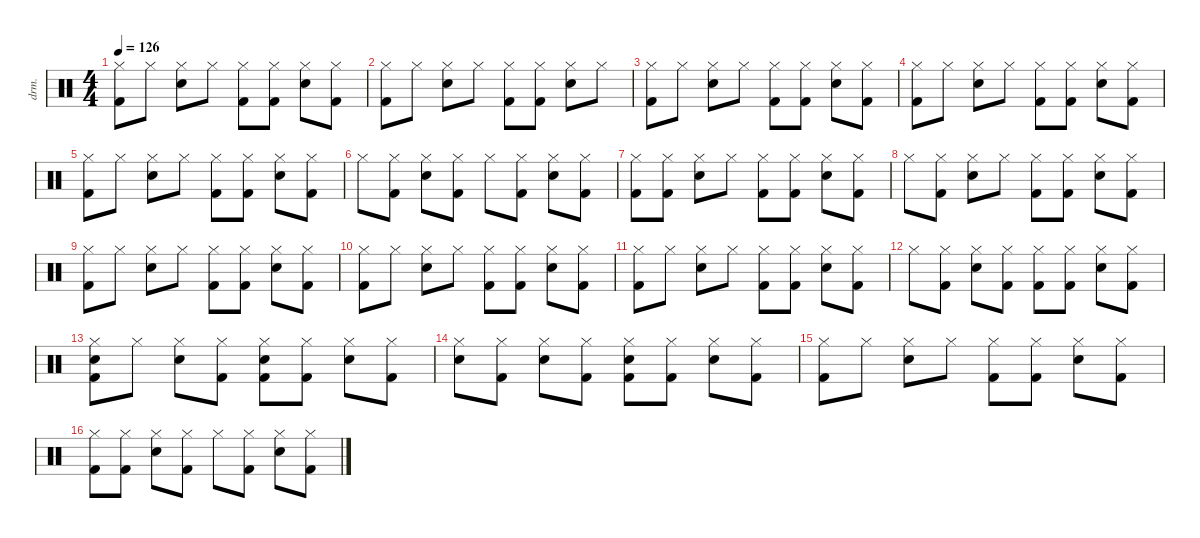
\defaultSystemsLayout 4
\hideDynamics
\bracketExtendMode nobrackets
\otherSystemsTrackNameOrientation horizontal
\track ("Drums" "drm.") {instrument percussion}
\staff {score}
\articulation defaults
\ts (4 4)
\tempo 126
\clef neutral
\ks c
("Kick (hit) 2" "Hi-Hat (closed)").8{dy f beam Down} "Hi-Hat (closed)".8{beam Down} ("Snare (hit) 2" "Hi-Hat (closed)").8{beam Down} "Hi-Hat (closed)".8{beam Down} ("Hi-Hat (closed)" "Kick (hit) 2").8{beam Down} ("Hi-Hat (closed)" "Kick (hit) 2").8{beam Down} ("Snare (hit) 2" "Hi-Hat (closed)").8{beam Down} ("Kick (hit) 2" "Hi-Hat (closed)").8{beam Down} |
("Kick (hit) 2" "Hi-Hat (closed)").8{beam Down} "Hi-Hat (closed)".8{beam Down} ("Snare (hit) 2" "Hi-Hat (closed)").8{beam Down} "Hi-Hat (closed)".8{beam Down} ("Hi-Hat (closed)" "Kick (hit) 2").8{beam Down} ("Hi-Hat (closed)" "Kick (hit) 2").8{beam Down} ("Snare (hit) 2" "Hi-Hat (closed)").8{beam Down} "Hi-Hat (closed)".8{beam Down} |
("Kick (hit) 2" "Hi-Hat (closed)").8{beam Down} "Hi-Hat (closed)".8{beam Down} ("Snare (hit) 2" "Hi-Hat (closed)").8{beam Down} "Hi-Hat (closed)".8{beam Down} ("Hi-Hat (closed)" "Kick (hit) 2").8{beam Down} ("Hi-Hat (closed)" "Kick (hit) 2").8{beam Down} ("Snare (hit) 2" "Hi-Hat (closed)").8{beam Down} ("Kick (hit) 2" "Hi-Hat (closed)").8{beam Down} |
("Kick (hit) 2" "Hi-Hat (closed)").8{beam Down} "Hi-Hat (closed)".8{beam Down} ("Snare (hit) 2" "Hi-Hat (closed)").8{beam Down} "Hi-Hat (closed)".8{beam Down} ("Hi-Hat (closed)" "Kick (hit) 2").8{beam Down} ("Hi-Hat (closed)" "Kick (hit) 2").8{beam Down} ("Snare (hit) 2" "Hi-Hat (closed)").8{beam Down} ("Kick (hit) 2" "Hi-Hat (closed)").8{beam Down} |
("Kick (hit) 2" "Hi-Hat (closed)").8{beam Down} "Hi-Hat (closed)".8{beam Down} ("Snare (hit) 2" "Hi-Hat (closed)").8{beam Down} "Hi-Hat (closed)".8{beam Down} ("Hi-Hat (closed)" "Kick (hit) 2").8{beam Down} ("Hi-Hat (closed)" "Kick (hit) 2").8{beam Down} ("Snare (hit) 2" "Hi-Hat (closed)").8{beam Down} ("Kick (hit) 2" "Hi-Hat (closed)").8{beam Down} |
"Hi-Hat (closed)".8{beam Down} ("Hi-Hat (closed)" "Kick (hit) 2").8{beam Down} ("Snare (hit) 2" "Hi-Hat (closed)").8{beam Down} ("Kick (hit) 2" "Hi-Hat (closed)").8{beam Down} "Hi-Hat (closed)".8{beam Down} ("Hi-Hat (closed)" "Kick (hit) 2").8{beam Down} ("Snare (hit) 2" "Hi-Hat (closed)").8{beam Down} ("Kick (hit) 2" "Hi-Hat (closed)").8{beam Down} |
("Kick (hit) 2" "Hi-Hat (closed)").8{beam Down} ("Kick (hit) 2" "Hi-Hat (closed)").8{beam Down} ("Snare (hit) 2" "Hi-Hat (closed)").8{beam Down} "Hi-Hat (closed)".8{beam Down} ("Hi-Hat (closed)" "Kick (hit) 2").8{beam Down} ("Hi-Hat (closed)" "Kick (hit) 2").8{beam Down} ("Snare (hit) 2" "Hi-Hat (closed)").8{beam Down} ("Kick (hit) 2" "Hi-Hat (closed)").8{beam Down} |
"Hi-Hat (closed)".8{beam Down} ("Hi-Hat (closed)" "Kick (hit) 2").8{beam Down} ("Snare (hit) 2" "Hi-Hat (closed)").8{beam Down} "Hi-Hat (closed)".8{beam Down} ("Hi-Hat (closed)" "Kick (hit) 2").8{beam Down} ("Hi-Hat (closed)" "Kick (hit) 2").8{beam Down} ("Snare (hit) 2" "Hi-Hat (closed)").8{beam Down} ("Kick (hit) 2" "Hi-Hat (closed)").8{beam Down} |
("Kick (hit) 2" "Hi-Hat (closed)").8{beam Down} "Hi-Hat (closed)".8{beam Down} ("Snare (hit) 2" "Hi-Hat (closed)").8{beam Down} "Hi-Hat (closed)".8{beam Down} ("Hi-Hat (closed)" "Kick (hit) 2").8{beam Down} ("Hi-Hat (closed)" "Kick (hit) 2").8{beam Down} ("Snare (hit) 2" "Hi-Hat (closed)").8{beam Down} ("Kick (hit) 2" "Hi-Hat (closed)").8{beam Down} |
("Kick (hit) 2" "Hi-Hat (closed)").8{beam Down} "Hi-Hat (closed)".8{beam Down} ("Snare (hit) 2" "Hi-Hat (closed)").8{beam Down} "Hi-Hat (closed)".8{beam Down} ("Hi-Hat (closed)" "Kick (hit) 2").8{beam Down} ("Hi-Hat (closed)" "Kick (hit) 2").8{beam Down} ("Snare (hit) 2" "Hi-Hat (closed)").8{beam Down} ("Kick (hit) 2" "Hi-Hat (closed)").8{beam Down} |
("Kick (hit) 2" "Hi-Hat (closed)").8{beam Down} "Hi-Hat (closed)".8{beam Down} ("Snare (hit) 2" "Hi-Hat (closed)").8{beam Down} "Hi-Hat (closed)".8{beam Down} ("Hi-Hat (closed)" "Kick (hit) 2").8{beam Down} ("Hi-Hat (closed)" "Kick (hit) 2").8{beam Down} ("Snare (hit) 2" "Hi-Hat (closed)").8{beam Down} ("Hi-Hat (closed)" "Kick (hit) 2").8{beam Down} |
"Hi-Hat (closed)".8{beam Down} ("Kick (hit) 2" "Hi-Hat (closed)").8{beam Down} ("Snare (hit) 2" "Hi-Hat (closed)").8{beam Down} ("Kick (hit) 2" "Hi-Hat (closed)").8{beam Down} ("Hi-Hat (closed)" "Kick (hit) 2").8{beam Down} ("Hi-Hat (closed)" "Kick (hit) 2").8{beam Down} ("Snare (hit) 2" "Hi-Hat (closed)").8{beam Down} ("Kick (hit) 2" "Hi-Hat (closed)").8{beam Down} |
("Snare (hit) 2" "Kick (hit) 2" "Hi-Hat (closed)").8{beam Down} "Hi-Hat (closed)".8{beam Down} ("Snare (hit) 2" "Hi-Hat (closed)").8{beam Down} ("Kick (hit) 2" "Hi-Hat (closed)").8{beam Down} ("Snare (hit) 2" "Hi-Hat (closed)" "Kick (hit) 2").8{beam Down} ("Hi-Hat (closed)" "Kick (hit) 2").8{beam Down} ("Snare (hit) 2" "Hi-Hat (closed)").8{beam Down} ("Kick (hit) 2" "Hi-Hat (closed)").8{beam Down} |
("Snare (hit) 2" "Hi-Hat (closed)").8{beam Down} ("Hi-Hat (closed)" "Kick (hit) 2").8{beam Down} ("Snare (hit) 2" "Hi-Hat (closed)").8{beam Down} ("Kick (hit) 2" "Hi-Hat (closed)").8{beam Down} ("Snare (hit) 2" "Hi-Hat (closed)" "Kick (hit) 2").8{beam Down} ("Hi-Hat (closed)" "Kick (hit) 2").8{beam Down} ("Snare (hit) 2" "Hi-Hat (closed)").8{beam Down} ("Kick (hit) 2" "Hi-Hat (closed)").8{beam Down} |
("Kick (hit) 2" "Hi-Hat (closed)").8{beam Down} "Hi-Hat (closed)".8{beam Down} ("Snare (hit) 2" "Hi-Hat (closed)").8{beam Down} "Hi-Hat (closed)".8{beam Down} ("Hi-Hat (closed)" "Kick (hit) 2").8{beam Down} ("Hi-Hat (closed)" "Kick (hit) 2").8{beam Down} ("Snare (hit) 2" "Hi-Hat (closed)").8{beam Down} ("Kick (hit) 2" "Hi-Hat (closed)").8{beam Down} |
("Kick (hit) 2" "Hi-Hat (closed)").8{beam Down} ("Kick (hit) 2" "Hi-Hat (closed)").8{beam Down} ("Snare (hit) 2" "Hi-Hat (closed)").8{beam Down} ("Kick (hit) 2" "Hi-Hat (closed)").8{beam Down} "Hi-Hat (closed)".8{beam Down} ("Hi-Hat (closed)" "Kick (hit) 2").8{beam Down} ("Snare (hit) 2" "Hi-Hat (closed)").8{beam Down} ("Kick (hit) 2" "Hi-Hat (closed)").8{beam Down}
